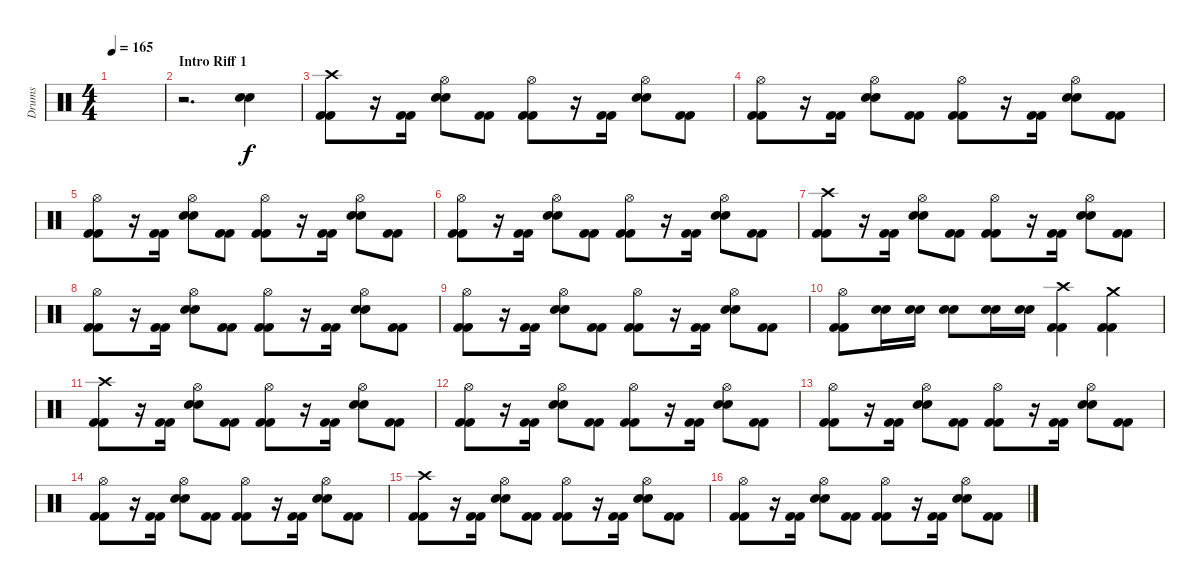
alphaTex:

\track ("Drums" "Drums") {instrument percussion}
\staff {score}
\articulation defaults
\ts (4 4)
\tempo 165
\clef neutral
\ks c
|
\section ("" "Intro Riff 1")
r.2{d} ("Snare (hit) 2" "Snare (hit) 2").4 |
("Crash high (hit)" "Kick (hit) 2" "Kick (hit) 2").8 r.16 ("Kick (hit) 2" "Kick (hit) 2").16 ("Hi-Hat (open)" "Snare (hit) 2" "Snare (hit) 2").8 ("Kick (hit) 2" "Kick (hit) 2").8 ("Hi-Hat (open)" "Kick (hit) 2" "Kick (hit) 2").8 r.16 ("Kick (hit) 2" "Kick (hit) 2").16 ("Hi-Hat (open)" "Snare (hit) 2" "Snare (hit) 2").8 ("Kick (hit) 2" "Kick (hit) 2").8 |
("Hi-Hat (open)" "Kick (hit) 2" "Kick (hit) 2").8 r.16 ("Kick (hit) 2" "Kick (hit) 2").16 ("Hi-Hat (open)" "Snare (hit) 2" "Snare (hit) 2").8 ("Kick (hit) 2" "Kick (hit) 2").8 ("Hi-Hat (open)" "Kick (hit) 2" "Kick (hit) 2").8 r.16 ("Kick (hit) 2" "Kick (hit) 2").16 ("Hi-Hat (open)" "Snare (hit) 2" "Snare (hit) 2").8 ("Kick (hit) 2" "Kick (hit) 2").8 |
("Hi-Hat (open)" "Kick (hit) 2" "Kick (hit) 2").8 r.16 ("Kick (hit) 2" "Kick (hit) 2").16 ("Hi-Hat (open)" "Snare (hit) 2" "Snare (hit) 2").8 ("Kick (hit) 2" "Kick (hit) 2").8 ("Hi-Hat (open)" "Kick (hit) 2" "Kick (hit) 2").8 r.16 ("Kick (hit) 2" "Kick (hit) 2").16 ("Hi-Hat (open)" "Snare (hit) 2" "Snare (hit) 2").8 ("Kick (hit) 2" "Kick (hit) 2").8 |
("Hi-Hat (open)" "Kick (hit) 2" "Kick (hit) 2").8 r.16 ("Kick (hit) 2" "Kick (hit) 2").16 ("Hi-Hat (open)" "Snare (hit) 2" "Snare (hit) 2").8 ("Kick (hit) 2" "Kick (hit) 2").8 ("Hi-Hat (open)" "Kick (hit) 2" "Kick (hit) 2").8 r.16 ("Kick (hit) 2" "Kick (hit) 2").16 ("Hi-Hat (open)" "Snare (hit) 2" "Snare (hit) 2").8 ("Kick (hit) 2" "Kick (hit) 2").8 |
("Crash high (hit)" "Kick (hit) 2" "Kick (hit) 2").8 r.16 ("Kick (hit) 2" "Kick (hit) 2").16 ("Hi-Hat (open)" "Snare (hit) 2" "Snare (hit) 2").8 ("Kick (hit) 2" "Kick (hit) 2").8 ("Hi-Hat (open)" "Kick (hit) 2" "Kick (hit) 2").8 r.16 ("Kick (hit) 2" "Kick (hit) 2").16 ("Hi-Hat (open)" "Snare (hit) 2" "Snare (hit) 2").8 ("Kick (hit) 2" "Kick (hit) 2").8 |
("Hi-Hat (open)" "Kick (hit) 2" "Kick (hit) 2").8 r.16 ("Kick (hit) 2" "Kick (hit) 2").16 ("Hi-Hat (open)" "Snare (hit) 2" "Snare (hit) 2").8 ("Kick (hit) 2" "Kick (hit) 2").8 ("Hi-Hat (open)" "Kick (hit) 2" "Kick (hit) 2").8 r.16 ("Kick (hit) 2" "Kick (hit) 2").16 ("Hi-Hat (open)" "Snare (hit) 2" "Snare (hit) 2").8 ("Kick (hit) 2" "Kick (hit) 2").8 |
("Hi-Hat (open)" "Kick (hit) 2" "Kick (hit) 2").8 r.16 ("Kick (hit) 2" "Kick (hit) 2").16 ("Hi-Hat (open)" "Snare (hit) 2" "Snare (hit) 2").8 ("Kick (hit) 2" "Kick (hit) 2").8 ("Hi-Hat (open)" "Kick (hit) 2" "Kick (hit) 2").8 r.16 ("Kick (hit) 2" "Kick (hit) 2").16 ("Hi-Hat (open)" "Snare (hit) 2" "Snare (hit) 2").8 ("Kick (hit) 2" "Kick (hit) 2").8 |
("Hi-Hat (open)" "Kick (hit) 2" "Kick (hit) 2").8 ("Snare (hit) 2" "Snare (hit) 2").16 ("Snare (hit) 2" "Snare (hit) 2").16 ("Snare (hit) 2" "Snare (hit) 2").8 ("Snare (hit) 2" "Snare (hit) 2").16 ("Snare (hit) 2" "Snare (hit) 2").16 ("Crash high (hit)" "Kick (hit) 2" "Kick (hit) 2").4 ("Crash medium (hit)" "Kick (hit) 2" "Kick (hit) 2").4 |
("Crash high (hit)" "Kick (hit) 2" "Kick (hit) 2").8 r.16 ("Kick (hit) 2" "Kick (hit) 2").16 ("Hi-Hat (open)" "Snare (hit) 2" "Snare (hit) 2").8 ("Kick (hit) 2" "Kick (hit) 2").8 ("Hi-Hat (open)" "Kick (hit) 2" "Kick (hit) 2").8 r.16 ("Kick (hit) 2" "Kick (hit) 2").16 ("Hi-Hat (open)" "Snare (hit) 2" "Snare (hit) 2").8 ("Kick (hit) 2" "Kick (hit) 2").8 |
("Hi-Hat (open)" "Kick (hit) 2" "Kick (hit) 2").8 r.16 ("Kick (hit) 2" "Kick (hit) 2").16 ("Hi-Hat (open)" "Snare (hit) 2" "Snare (hit) 2").8 ("Kick (hit) 2" "Kick (hit) 2").8 ("Hi-Hat (open)" "Kick (hit) 2" "Kick (hit) 2").8 r.16 ("Kick (hit) 2" "Kick (hit) 2").16 ("Hi-Hat (open)" "Snare (hit) 2" "Snare (hit) 2").8 ("Kick (hit) 2" "Kick (hit) 2").8 |
("Hi-Hat (open)" "Kick (hit) 2" "Kick (hit) 2").8 r.16 ("Kick (hit) 2" "Kick (hit) 2").16 ("Hi-Hat (open)" "Snare (hit) 2" "Snare (hit) 2").8 ("Kick (hit) 2" "Kick (hit) 2").8 ("Hi-Hat (open)" "Kick (hit) 2" "Kick (hit) 2").8 r.16 ("Kick (hit) 2" "Kick (hit) 2").16 ("Hi-Hat (open)" "Snare (hit) 2" "Snare (hit) 2").8 ("Kick (hit) 2" "Kick (hit) 2").8 |
("Hi-Hat (open)" "Kick (hit) 2" "Kick (hit) 2").8 r.16 ("Kick (hit) 2" "Kick (hit) 2").16 ("Hi-Hat (open)" "Snare (hit) 2" "Snare (hit) 2").8 ("Kick (hit) 2" "Kick (hit) 2").8 ("Hi-Hat (open)" "Kick (hit) 2" "Kick (hit) 2").8 r.16 ("Kick (hit) 2" "Kick (hit) 2").16 ("Hi-Hat (open)" "Snare (hit) 2" "Snare (hit) 2").8 ("Kick (hit) 2" "Kick (hit) 2").8 |
("Crash high (hit)" "Kick (hit) 2" "Kick (hit) 2").8 r.16 ("Kick (hit) 2" "Kick (hit) 2").16 ("Hi-Hat (open)" "Snare (hit) 2" "Snare (hit) 2").8 ("Kick (hit) 2" "Kick (hit) 2").8 ("Hi-Hat (open)" "Kick (hit) 2" "Kick (hit) 2").8 r.16 ("Kick (hit) 2" "Kick (hit) 2").16 ("Hi-Hat (open)" "Snare (hit) 2" "Snare (hit) 2").8 ("Kick (hit) 2" "Kick (hit) 2").8 |
("Hi-Hat (open)" "Kick (hit) 2" "Kick (hit) 2").8 r.16 ("Kick (hit) 2" "Kick (hit) 2").16 ("Hi-Hat (open)" "Snare (hit) 2" "Snare (hit) 2").8 ("Kick (hit) 2" "Kick (hit) 2").8 ("Hi-Hat (open)" "Kick (hit) 2" "Kick (hit) 2").8 r.16 ("Kick (hit) 2" "Kick (hit) 2").16 ("Hi-Hat (open)" "Snare (hit) 2" "Snare (hit) 2").8 ("Kick (hit) 2" "Kick (hit) 2").8
